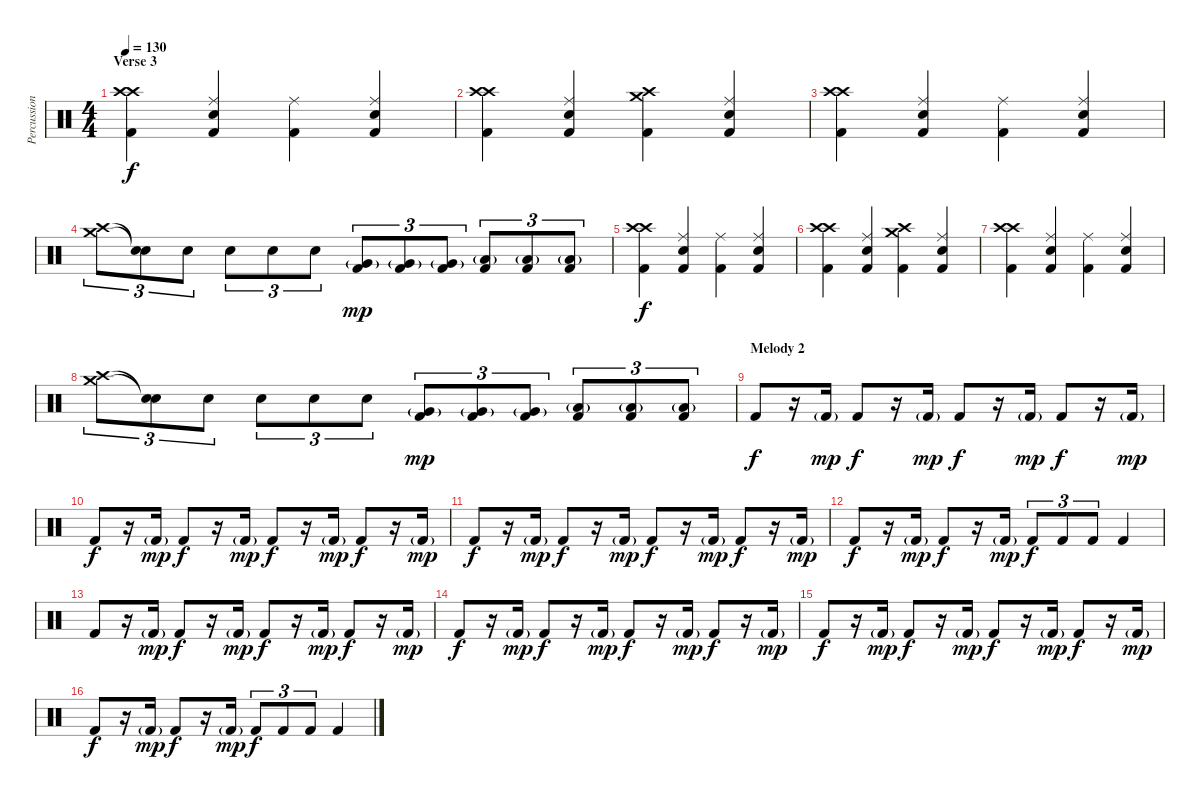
\track ("Percussion - Rhythm" "Percussion") {instrument percussion}
\staff {score}
\articulation defaults
\ts (4 4)
\section ("" "Verse 3")
\tempo 130
\clef neutral
\ks c
("Crash high (hit)" "Crash high (hit)" "Kick (hit) 2").4{dy f volume 13} ("Ride (middle)" "Snare (hit) 2" "Kick (hit) 2").4 ("Ride (middle)" "Kick (hit) 2").4 ("Ride (middle)" "Snare (hit) 2" "Kick (hit) 2").4 |
("Crash high (hit)" "Crash high (hit)" "Kick (hit) 2").4 ("Ride (middle)" "Snare (hit) 2" "Kick (hit) 2").4 ("Crash medium (hit)" "Crash high (hit)" "Kick (hit) 2").4 ("Ride (middle)" "Snare (hit) 2" "Kick (hit) 2").4 |
("Crash high (hit)" "Crash high (hit)" "Kick (hit) 2").4{volume 13} ("Ride (middle)" "Snare (hit) 2" "Kick (hit) 2").4 ("Ride (middle)" "Kick (hit) 2").4 ("Ride (middle)" "Snare (hit) 2" "Kick (hit) 2").4 |
("Crash medium (hit)" "Crash high (hit)").8{tu (3 2)} ("Snare (hit)"{t} "Snare (hit)"{t}).8{tu (3 2)} "Snare (hit) 2".8{tu (3 2)} "Snare (hit) 2".8{tu (3 2)} "Snare (hit) 2".8{tu (3 2)} "Snare (hit) 2".8{tu (3 2)} ("Very Low Tom (hit)"{g} "Kick (hit) 2").8{tu (3 2) dy mp balance 16} ("Very Low Tom (hit)"{g} "Kick (hit) 2").8{tu (3 2)} ("Very Low Tom (hit)"{g} "Kick (hit) 2").8{tu (3 2)} ("Low Floor Tom (hit)"{g} "Kick (hit) 2").8{tu (3 2) balance 8} ("Low Floor Tom (hit)"{g} "Kick (hit) 2").8{tu (3 2)} ("Low Floor Tom (hit)"{g} "Kick (hit) 2").8{tu (3 2)} |
("Crash high (hit)" "Crash high (hit)" "Kick (hit) 2").4{dy f volume 13} ("Ride (middle)" "Snare (hit) 2" "Kick (hit) 2").4 ("Ride (middle)" "Kick (hit) 2").4 ("Ride (middle)" "Snare (hit) 2" "Kick (hit) 2").4 |
("Crash high (hit)" "Crash high (hit)" "Kick (hit) 2").4 ("Ride (middle)" "Snare (hit) 2" "Kick (hit) 2").4 ("Crash medium (hit)" "Crash high (hit)" "Kick (hit) 2").4 ("Ride (middle)" "Snare (hit) 2" "Kick (hit) 2").4 |
("Crash high (hit)" "Crash high (hit)" "Kick (hit) 2").4{volume 13} ("Ride (middle)" "Snare (hit) 2" "Kick (hit) 2").4 ("Ride (middle)" "Kick (hit) 2").4 ("Ride (middle)" "Snare (hit) 2" "Kick (hit) 2").4 |
("Crash medium (hit)" "Crash high (hit)").8{tu (3 2)} ("Snare (hit)"{t} "Snare (hit)"{t}).8{tu (3 2)} "Snare (hit) 2".8{tu (3 2)} "Snare (hit) 2".8{tu (3 2)} "Snare (hit) 2".8{tu (3 2)} "Snare (hit) 2".8{tu (3 2)} ("Very Low Tom (hit)"{g} "Kick (hit) 2").8{tu (3 2) dy mp balance 16} ("Very Low Tom (hit)"{g} "Kick (hit) 2").8{tu (3 2)} ("Very Low Tom (hit)"{g} "Kick (hit) 2").8{tu (3 2)} ("Low Floor Tom (hit)"{g} "Kick (hit) 2").8{tu (3 2) balance 8} ("Low Floor Tom (hit)"{g} "Kick (hit) 2").8{tu (3 2)} ("Low Floor Tom (hit)"{g} "Kick (hit) 2").8{tu (3 2)} |
\section ("" "Melody 2")
"Kick (hit) 2".8{dy f} r.16 "Kick (hit) 2"{g}.16{dy mp} "Kick (hit) 2".8{dy f} r.16 "Kick (hit) 2"{g}.16{dy mp} "Kick (hit) 2".8{dy f} r.16 "Kick (hit) 2"{g}.16{dy mp} "Kick (hit) 2".8{dy f} r.16 "Kick (hit) 2"{g}.16{dy mp} |
"Kick (hit) 2".8{dy f} r.16 "Kick (hit) 2"{g}.16{dy mp} "Kick (hit) 2".8{dy f} r.16 "Kick (hit) 2"{g}.16{dy mp} "Kick (hit) 2".8{dy f} r.16 "Kick (hit) 2"{g}.16{dy mp} "Kick (hit) 2".8{dy f} r.16 "Kick (hit) 2"{g}.16{dy mp} |
"Kick (hit) 2".8{dy f} r.16 "Kick (hit) 2"{g}.16{dy mp} "Kick (hit) 2".8{dy f} r.16 "Kick (hit) 2"{g}.16{dy mp} "Kick (hit) 2".8{dy f} r.16 "Kick (hit) 2"{g}.16{dy mp} "Kick (hit) 2".8{dy f} r.16 "Kick (hit) 2"{g}.16{dy mp} |
"Kick (hit) 2".8{dy f} r.16 "Kick (hit) 2"{g}.16{dy mp} "Kick (hit) 2".8{dy f} r.16 "Kick (hit) 2"{g}.16{dy mp} "Kick (hit) 2".8{tu (3 2) dy f} "Kick (hit) 2".8{tu (3 2)} "Kick (hit) 2".8{tu (3 2)} "Kick (hit) 2".4 |
"Kick (hit) 2".8 r.16 "Kick (hit) 2"{g}.16{dy mp} "Kick (hit) 2".8{dy f} r.16 "Kick (hit) 2"{g}.16{dy mp} "Kick (hit) 2".8{dy f} r.16 "Kick (hit) 2"{g}.16{dy mp} "Kick (hit) 2".8{dy f} r.16 "Kick (hit) 2"{g}.16{dy mp} |
"Kick (hit) 2".8{dy f} r.16 "Kick (hit) 2"{g}.16{dy mp} "Kick (hit) 2".8{dy f} r.16 "Kick (hit) 2"{g}.16{dy mp} "Kick (hit) 2".8{dy f} r.16 "Kick (hit) 2"{g}.16{dy mp} "Kick (hit) 2".8{dy f} r.16 "Kick (hit) 2"{g}.16{dy mp} |
"Kick (hit) 2".8{dy f} r.16 "Kick (hit) 2"{g}.16{dy mp} "Kick (hit) 2".8{dy f} r.16 "Kick (hit) 2"{g}.16{dy mp} "Kick (hit) 2".8{dy f} r.16 "Kick (hit) 2"{g}.16{dy mp} "Kick (hit) 2".8{dy f} r.16 "Kick (hit) 2"{g}.16{dy mp} |
"Kick (hit) 2".8{dy f} r.16 "Kick (hit) 2"{g}.16{dy mp} "Kick (hit) 2".8{dy f} r.16 "Kick (hit) 2"{g}.16{dy mp} "Kick (hit) 2".8{tu (3 2) dy f} "Kick (hit) 2".8{tu (3 2)} "Kick (hit) 2".8{tu (3 2)} "Kick (hit) 2".4
